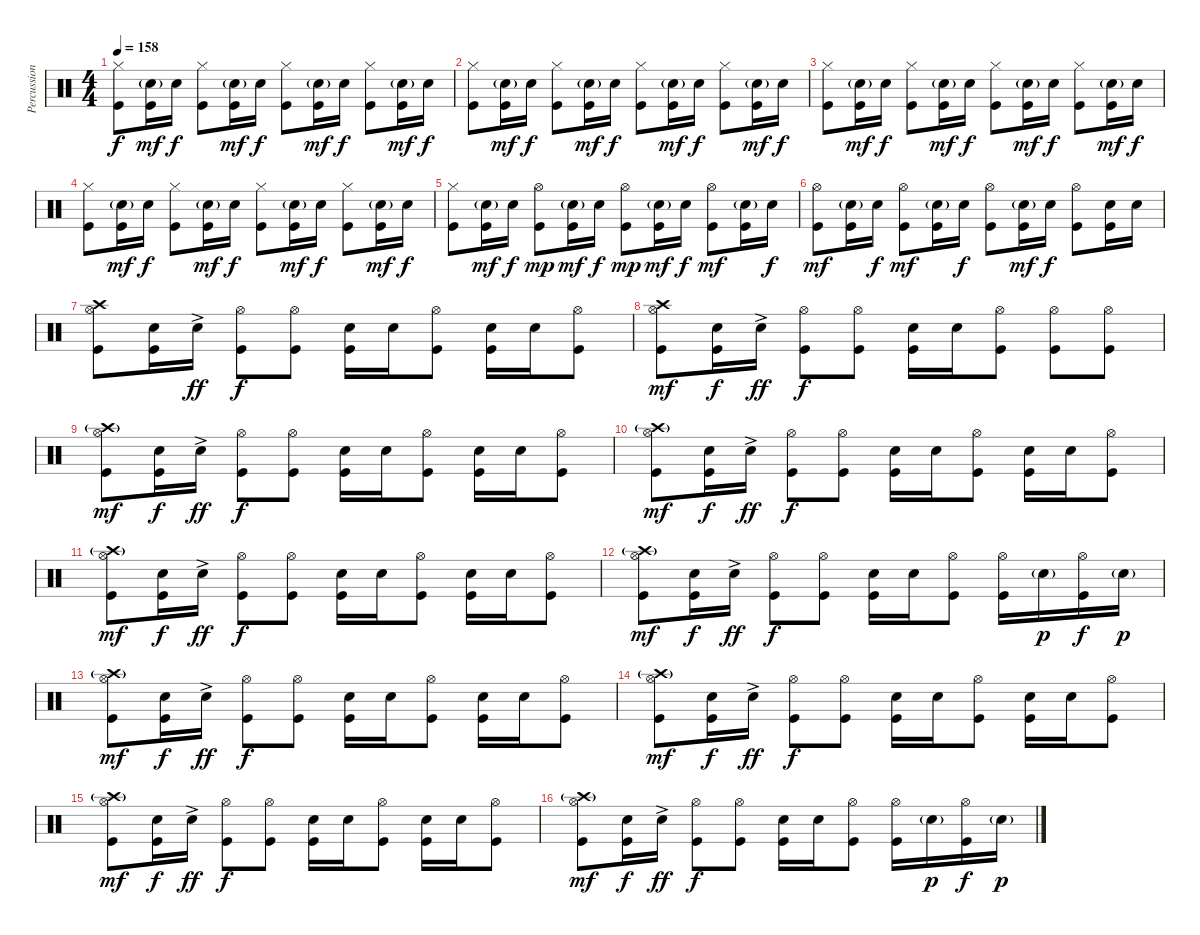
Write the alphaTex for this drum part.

\track ("Percussion" "Percussion") {instrument percussion}
\staff {score}
\articulation defaults
\ts (4 4)
\tempo 158
\clef neutral
\ks c
("Hi-Hat (closed)" "Kick (hit)").8{dy f} ("Snare (hit) 2"{g} "Kick (hit)").16{dy mf} "Snare (hit) 2".16{dy f} ("Hi-Hat (closed)" "Kick (hit)").8 ("Snare (hit) 2"{g} "Kick (hit)").16{dy mf} "Snare (hit) 2".16{dy f} ("Hi-Hat (closed)" "Kick (hit)").8 ("Snare (hit) 2"{g} "Kick (hit)").16{dy mf} "Snare (hit) 2".16{dy f} ("Hi-Hat (closed)" "Kick (hit)").8 ("Snare (hit) 2"{g} "Kick (hit)").16{dy mf} "Snare (hit) 2".16{dy f} |
("Hi-Hat (closed)" "Kick (hit)").8 ("Snare (hit) 2"{g} "Kick (hit)").16{dy mf} "Snare (hit) 2".16{dy f} ("Hi-Hat (closed)" "Kick (hit)").8 ("Snare (hit) 2"{g} "Kick (hit)").16{dy mf} "Snare (hit) 2".16{dy f} ("Hi-Hat (closed)" "Kick (hit)").8 ("Snare (hit) 2"{g} "Kick (hit)").16{dy mf} "Snare (hit) 2".16{dy f} ("Hi-Hat (closed)" "Kick (hit)").8 ("Snare (hit) 2"{g} "Kick (hit)").16{dy mf} "Snare (hit) 2".16{dy f} |
("Hi-Hat (closed)" "Kick (hit)").8 ("Snare (hit) 2"{g} "Kick (hit)").16{dy mf} "Snare (hit) 2".16{dy f} ("Hi-Hat (closed)" "Kick (hit)").8 ("Snare (hit) 2"{g} "Kick (hit)").16{dy mf} "Snare (hit) 2".16{dy f} ("Hi-Hat (closed)" "Kick (hit)").8 ("Snare (hit) 2"{g} "Kick (hit)").16{dy mf} "Snare (hit) 2".16{dy f} ("Hi-Hat (closed)" "Kick (hit)").8 ("Snare (hit) 2"{g} "Kick (hit)").16{dy mf} "Snare (hit) 2".16{dy f} |
("Hi-Hat (closed)" "Kick (hit)").8 ("Snare (hit) 2"{g} "Kick (hit)").16{dy mf} "Snare (hit) 2".16{dy f} ("Hi-Hat (closed)" "Kick (hit)").8 ("Snare (hit) 2"{g} "Kick (hit)").16{dy mf} "Snare (hit) 2".16{dy f} ("Hi-Hat (closed)" "Kick (hit)").8 ("Snare (hit) 2"{g} "Kick (hit)").16{dy mf} "Snare (hit) 2".16{dy f} ("Hi-Hat (closed)" "Kick (hit)").8 ("Snare (hit) 2"{g} "Kick (hit)").16{dy mf} "Snare (hit) 2".16{dy f} |
("Hi-Hat (closed)" "Kick (hit)").8 ("Snare (hit) 2"{g} "Kick (hit)").16{dy mf} "Snare (hit) 2".16{dy f} ("Hi-Hat (open)" "Kick (hit)").8{dy mp} ("Snare (hit) 2"{g} "Kick (hit)").16{dy mf} "Snare (hit) 2".16{dy f} ("Hi-Hat (open)" "Kick (hit)").8{dy mp} ("Snare (hit) 2"{g} "Kick (hit)").16{dy mf} "Snare (hit) 2".16{dy f} ("Hi-Hat (open)" "Kick (hit)").8{dy mf} ("Snare (hit) 2"{g} "Kick (hit)").16 "Snare (hit) 2".16{dy f} |
("Hi-Hat (open)" "Kick (hit)").8{dy mf} ("Snare (hit) 2"{g} "Kick (hit)").16 "Snare (hit) 2".16{dy f} ("Hi-Hat (open)" "Kick (hit)").8{dy mf} ("Snare (hit) 2"{g} "Kick (hit)").16 "Snare (hit) 2".16{dy f} ("Hi-Hat (open)" "Kick (hit)").8 ("Snare (hit) 2"{g} "Kick (hit)").16{dy mf} "Snare (hit) 2".16{dy f} ("Hi-Hat (open)" "Kick (hit)").8 ("Snare (hit) 2" "Kick (hit)").16 "Snare (hit) 2".16 |
("Crash high (hit)" "Hi-Hat (open)" "Kick (hit)").8 ("Snare (hit) 2" "Kick (hit)").16 "Snare (hit) 2"{ac}.16{dy ff} ("Hi-Hat (open)" "Kick (hit)").8{dy f} ("Hi-Hat (open)" "Kick (hit)").8 ("Snare (hit) 2" "Kick (hit)").16 "Snare (hit) 2".16 ("Hi-Hat (open)" "Kick (hit)").8 ("Snare (hit) 2" "Kick (hit)").16 "Snare (hit) 2".16 ("Hi-Hat (open)" "Kick (hit)").8 |
("Crash high (hit)" "Hi-Hat (open)" "Kick (hit)").8{dy mf} ("Snare (hit) 2" "Kick (hit)").16{dy f} "Snare (hit) 2"{ac}.16{dy ff} ("Hi-Hat (open)" "Kick (hit)").8{dy f} ("Hi-Hat (open)" "Kick (hit)").8 ("Snare (hit) 2" "Kick (hit)").16 "Snare (hit) 2".16 ("Hi-Hat (open)" "Kick (hit)").8 ("Hi-Hat (open)" "Kick (hit)").8 ("Hi-Hat (open)" "Kick (hit)").8 |
("Crash high (hit)"{g} "Hi-Hat (open)" "Kick (hit)").8{dy mf} ("Snare (hit) 2" "Kick (hit)").16{dy f} "Snare (hit) 2"{ac}.16{dy ff} ("Hi-Hat (open)" "Kick (hit)").8{dy f} ("Hi-Hat (open)" "Kick (hit)").8 ("Snare (hit) 2" "Kick (hit)").16 "Snare (hit) 2".16 ("Hi-Hat (open)" "Kick (hit)").8 ("Snare (hit) 2" "Kick (hit)").16 "Snare (hit) 2".16 ("Hi-Hat (open)" "Kick (hit)").8 |
("Crash high (hit)"{g} "Hi-Hat (open)" "Kick (hit)").8{dy mf} ("Snare (hit) 2" "Kick (hit)").16{dy f} "Snare (hit) 2"{ac}.16{dy ff} ("Hi-Hat (open)" "Kick (hit)").8{dy f} ("Hi-Hat (open)" "Kick (hit)").8 ("Snare (hit) 2" "Kick (hit)").16 "Snare (hit) 2".16 ("Hi-Hat (open)" "Kick (hit)").8 ("Snare (hit) 2" "Kick (hit)").16 "Snare (hit) 2".16 ("Hi-Hat (open)" "Kick (hit)").8 |
("Crash high (hit)"{g} "Hi-Hat (open)" "Kick (hit)").8{dy mf} ("Snare (hit) 2" "Kick (hit)").16{dy f} "Snare (hit) 2"{ac}.16{dy ff} ("Hi-Hat (open)" "Kick (hit)").8{dy f} ("Hi-Hat (open)" "Kick (hit)").8 ("Snare (hit) 2" "Kick (hit)").16 "Snare (hit) 2".16 ("Hi-Hat (open)" "Kick (hit)").8 ("Snare (hit) 2" "Kick (hit)").16 "Snare (hit) 2".16 ("Hi-Hat (open)" "Kick (hit)").8 |
("Crash high (hit)"{g} "Hi-Hat (open)" "Kick (hit)").8{dy mf} ("Snare (hit) 2" "Kick (hit)").16{dy f} "Snare (hit) 2"{ac}.16{dy ff} ("Hi-Hat (open)" "Kick (hit)").8{dy f} ("Hi-Hat (open)" "Kick (hit)").8 ("Snare (hit) 2" "Kick (hit)").16 "Snare (hit) 2".16 ("Hi-Hat (open)" "Kick (hit)").8 ("Hi-Hat (open)" "Kick (hit)").16 "Snare (hit) 2"{g}.16{dy p} ("Hi-Hat (open)" "Kick (hit)").16{dy f} "Snare (hit) 2"{g}.16{dy p} |
("Crash high (hit)"{g} "Hi-Hat (open)" "Kick (hit)").8{dy mf} ("Snare (hit) 2" "Kick (hit)").16{dy f} "Snare (hit) 2"{ac}.16{dy ff} ("Hi-Hat (open)" "Kick (hit)").8{dy f} ("Hi-Hat (open)" "Kick (hit)").8 ("Snare (hit) 2" "Kick (hit)").16 "Snare (hit) 2".16 ("Hi-Hat (open)" "Kick (hit)").8 ("Snare (hit) 2" "Kick (hit)").16 "Snare (hit) 2".16 ("Hi-Hat (open)" "Kick (hit)").8 |
("Crash high (hit)"{g} "Hi-Hat (open)" "Kick (hit)").8{dy mf} ("Snare (hit) 2" "Kick (hit)").16{dy f} "Snare (hit) 2"{ac}.16{dy ff} ("Hi-Hat (open)" "Kick (hit)").8{dy f} ("Hi-Hat (open)" "Kick (hit)").8 ("Snare (hit) 2" "Kick (hit)").16 "Snare (hit) 2".16 ("Hi-Hat (open)" "Kick (hit)").8 ("Snare (hit) 2" "Kick (hit)").16 "Snare (hit) 2".16 ("Hi-Hat (open)" "Kick (hit)").8 |
("Crash high (hit)"{g} "Hi-Hat (open)" "Kick (hit)").8{dy mf} ("Snare (hit) 2" "Kick (hit)").16{dy f} "Snare (hit) 2"{ac}.16{dy ff} ("Hi-Hat (open)" "Kick (hit)").8{dy f} ("Hi-Hat (open)" "Kick (hit)").8 ("Snare (hit) 2" "Kick (hit)").16 "Snare (hit) 2".16 ("Hi-Hat (open)" "Kick (hit)").8 ("Snare (hit) 2" "Kick (hit)").16 "Snare (hit) 2".16 ("Hi-Hat (open)" "Kick (hit)").8 |
("Crash high (hit)"{g} "Hi-Hat (open)" "Kick (hit)").8{dy mf} ("Snare (hit) 2" "Kick (hit)").16{dy f} "Snare (hit) 2"{ac}.16{dy ff} ("Hi-Hat (open)" "Kick (hit)").8{dy f} ("Hi-Hat (open)" "Kick (hit)").8 ("Snare (hit) 2" "Kick (hit)").16 "Snare (hit) 2".16 ("Hi-Hat (open)" "Kick (hit)").8 ("Hi-Hat (open)" "Kick (hit)").16 "Snare (hit) 2"{g}.16{dy p} ("Hi-Hat (open)" "Kick (hit)").16{dy f} "Snare (hit) 2"{g}.16{dy p}
